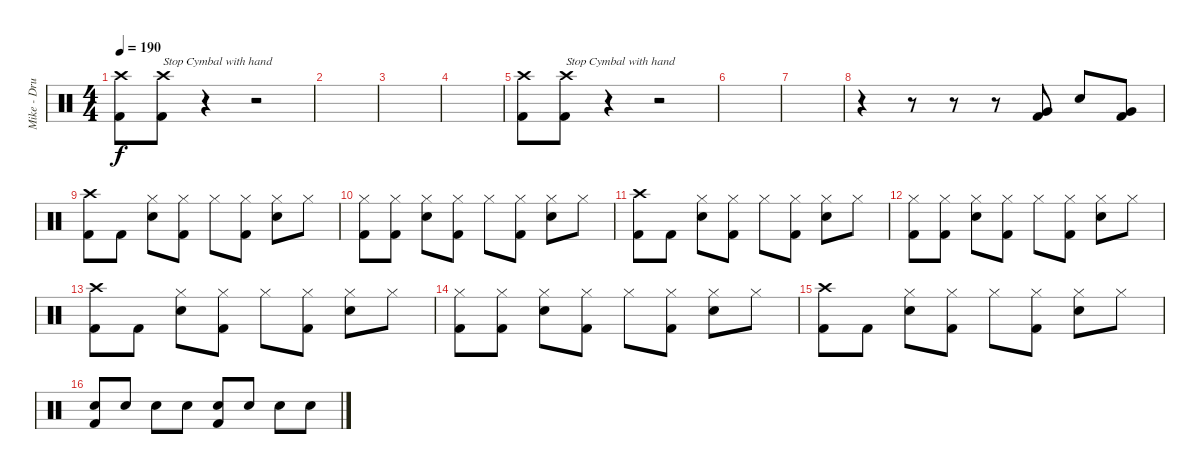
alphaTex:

\track ("Mike - Drums" "Mike - Dru") {instrument percussion}
\staff {score}
\articulation defaults
\ts (4 4)
\tempo 190
\clef neutral
\ks c
("Crash high (hit)" "Kick (hit) 2").8{dy f} ("Crash high (hit)" "Kick (hit) 2").8{txt "Stop Cymbal with hand"} r.4 r.2 |
|
|
|
("Crash high (hit)" "Kick (hit) 2").8 ("Crash high (hit)" "Kick (hit) 2").8{txt "Stop Cymbal with hand"} r.4 r.2 |
|
|
r.4 r.8 r.8 r.8 ("Very Low Tom (hit)" "Kick (hit) 2").8 "Snare (hit) 2".8 ("Very Low Tom (hit)" "Kick (hit) 2").8 |
("Crash high (hit)" "Kick (hit) 2").8 "Kick (hit) 2".8 ("Hi-Hat (closed)" "Snare (hit) 2").8 ("Hi-Hat (closed)" "Kick (hit) 2").8 "Hi-Hat (closed)".8 ("Hi-Hat (closed)" "Kick (hit) 2").8 ("Hi-Hat (closed)" "Snare (hit) 2").8 "Hi-Hat (closed)".8 |
("Hi-Hat (closed)" "Kick (hit) 2").8 ("Hi-Hat (closed)" "Kick (hit) 2").8 ("Hi-Hat (closed)" "Snare (hit) 2").8 ("Hi-Hat (closed)" "Kick (hit) 2").8 "Hi-Hat (closed)".8 ("Hi-Hat (closed)" "Kick (hit) 2").8 ("Hi-Hat (closed)" "Snare (hit) 2").8 "Hi-Hat (closed)".8 |
("Crash high (hit)" "Kick (hit) 2").8 "Kick (hit) 2".8 ("Hi-Hat (closed)" "Snare (hit) 2").8 ("Hi-Hat (closed)" "Kick (hit) 2").8 "Hi-Hat (closed)".8 ("Hi-Hat (closed)" "Kick (hit) 2").8 ("Hi-Hat (closed)" "Snare (hit) 2").8 "Hi-Hat (closed)".8 |
("Hi-Hat (closed)" "Kick (hit) 2").8 ("Hi-Hat (closed)" "Kick (hit) 2").8 ("Hi-Hat (closed)" "Snare (hit) 2").8 ("Hi-Hat (closed)" "Kick (hit) 2").8 "Hi-Hat (closed)".8 ("Hi-Hat (closed)" "Kick (hit) 2").8 ("Hi-Hat (closed)" "Snare (hit) 2").8 "Hi-Hat (closed)".8 |
("Crash high (hit)" "Kick (hit) 2").8 "Kick (hit) 2".8 ("Hi-Hat (closed)" "Snare (hit) 2").8 ("Hi-Hat (closed)" "Kick (hit) 2").8 "Hi-Hat (closed)".8 ("Hi-Hat (closed)" "Kick (hit) 2").8 ("Hi-Hat (closed)" "Snare (hit) 2").8 "Hi-Hat (closed)".8 |
("Hi-Hat (closed)" "Kick (hit) 2").8 ("Hi-Hat (closed)" "Kick (hit) 2").8 ("Hi-Hat (closed)" "Snare (hit) 2").8 ("Hi-Hat (closed)" "Kick (hit) 2").8 "Hi-Hat (closed)".8 ("Hi-Hat (closed)" "Kick (hit) 2").8 ("Hi-Hat (closed)" "Snare (hit) 2").8 "Hi-Hat (closed)".8 |
("Crash high (hit)" "Kick (hit) 2").8 "Kick (hit) 2".8 ("Hi-Hat (closed)" "Snare (hit) 2").8 ("Hi-Hat (closed)" "Kick (hit) 2").8 "Hi-Hat (closed)".8 ("Hi-Hat (closed)" "Kick (hit) 2").8 ("Hi-Hat (closed)" "Snare (hit) 2").8 "Hi-Hat (closed)".8 |
("Snare (hit) 2" "Kick (hit) 2").8 "Snare (hit) 2".8 "Snare (hit) 2".8 "Snare (hit) 2".8 ("Snare (hit) 2" "Kick (hit) 2").8 "Snare (hit) 2".8 "Snare (hit) 2".8 "Snare (hit) 2".8
